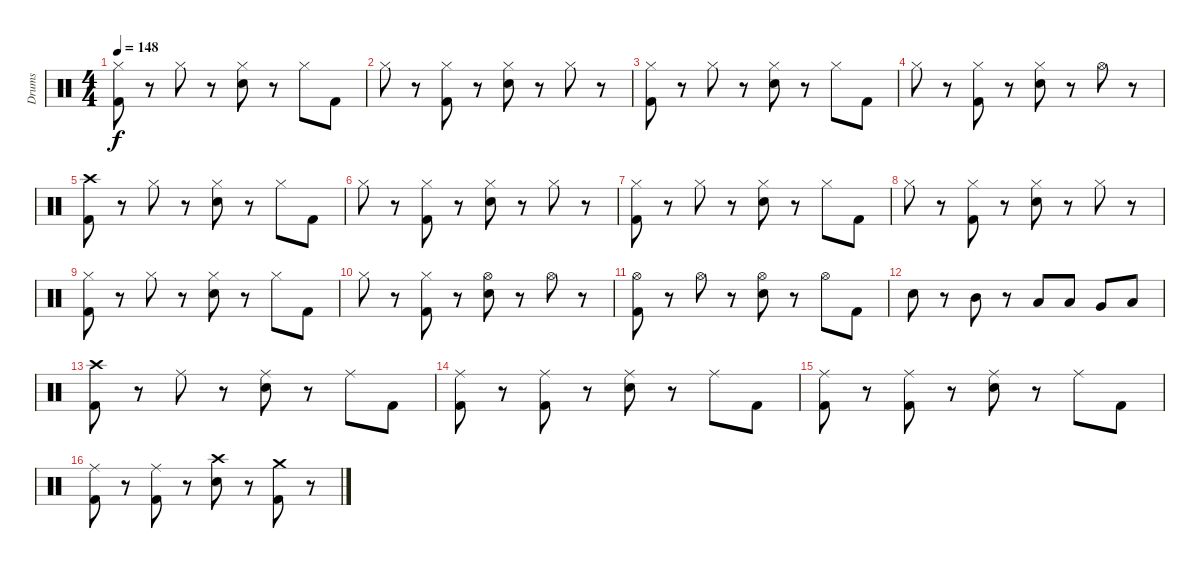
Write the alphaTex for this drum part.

\track ("Drums" "Drums") {instrument percussion}
\staff {score}
\articulation defaults
\ts (4 4)
\tempo 148
\clef neutral
\ks c
("Hi-Hat (closed)" "Kick (hit) 2").8{dy f} r.8 "Hi-Hat (closed)".8 r.8 ("Hi-Hat (closed)" "Snare (hit) 2").8 r.8 "Hi-Hat (closed)".8 "Kick (hit) 2".8 |
"Hi-Hat (closed)".8 r.8 ("Hi-Hat (closed)" "Kick (hit) 2").8 r.8 ("Hi-Hat (closed)" "Snare (hit) 2").8 r.8 "Hi-Hat (closed)".8 r.8 |
("Hi-Hat (closed)" "Kick (hit) 2").8 r.8 "Hi-Hat (closed)".8 r.8 ("Hi-Hat (closed)" "Snare (hit) 2").8 r.8 "Hi-Hat (closed)".8 "Kick (hit) 2".8 |
"Hi-Hat (closed)".8 r.8 ("Hi-Hat (closed)" "Kick (hit) 2").8 r.8 ("Hi-Hat (closed)" "Snare (hit) 2").8 r.8 "Hi-Hat (open)".8 r.8 |
("Crash high (hit)" "Kick (hit) 2").8 r.8 "Hi-Hat (closed)".8 r.8 ("Hi-Hat (closed)" "Snare (hit) 2").8 r.8 "Hi-Hat (closed)".8 "Kick (hit) 2".8 |
"Hi-Hat (closed)".8 r.8 ("Hi-Hat (closed)" "Kick (hit) 2").8 r.8 ("Hi-Hat (closed)" "Snare (hit) 2").8 r.8 "Hi-Hat (closed)".8 r.8 |
("Hi-Hat (closed)" "Kick (hit) 2").8 r.8 "Hi-Hat (closed)".8 r.8 ("Hi-Hat (closed)" "Snare (hit) 2").8 r.8 "Hi-Hat (closed)".8 "Kick (hit) 2".8 |
"Hi-Hat (closed)".8 r.8 ("Hi-Hat (closed)" "Kick (hit) 2").8 r.8 ("Hi-Hat (closed)" "Snare (hit) 2").8 r.8 "Hi-Hat (closed)".8 r.8 |
("Hi-Hat (closed)" "Kick (hit) 2").8 r.8 "Hi-Hat (closed)".8 r.8 ("Hi-Hat (closed)" "Snare (hit) 2").8 r.8 "Hi-Hat (closed)".8 "Kick (hit) 2".8 |
"Hi-Hat (closed)".8 r.8 ("Hi-Hat (closed)" "Kick (hit) 2").8 r.8 ("Hi-Hat (open)" "Snare (hit) 2").8 r.8 "Hi-Hat (open)".8 r.8 |
("Hi-Hat (open)" "Kick (hit) 2").8 r.8 "Hi-Hat (open)".8 r.8 ("Hi-Hat (open)" "Snare (hit) 2").8 r.8 "Hi-Hat (open)".8 "Kick (hit) 2".8 |
"Snare (hit) 2".8 r.8 "Mid Tom (hit)".8 r.8 "Low Tom (hit)".8 "Low Tom (hit)".8 "Very Low Tom (hit)".8 "Low Floor Tom (hit)".8 |
("Crash high (hit)" "Kick (hit) 2").8 r.8 "Ride (middle)".8 r.8 ("Ride (middle)" "Snare (hit) 2").8 r.8 "Ride (middle)".8 "Kick (hit) 2".8 |
("Ride (middle)" "Kick (hit) 2").8 r.8 ("Ride (middle)" "Kick (hit) 2").8 r.8 ("Ride (middle)" "Snare (hit) 2").8 r.8 "Ride (middle)".8 "Kick (hit) 2".8 |
("Ride (middle)" "Kick (hit) 2").8 r.8 ("Ride (middle)" "Kick (hit) 2").8 r.8 ("Ride (middle)" "Snare (hit) 2").8 r.8 "Ride (middle)".8 "Kick (hit) 2".8 |
("Ride (middle)" "Kick (hit) 2").8 r.8 ("Ride (middle)" "Kick (hit) 2").8 r.8 ("Crash high (hit)" "Snare (hit) 2").8 r.8 ("Crash medium (hit)" "Kick (hit) 2").8 r.8
